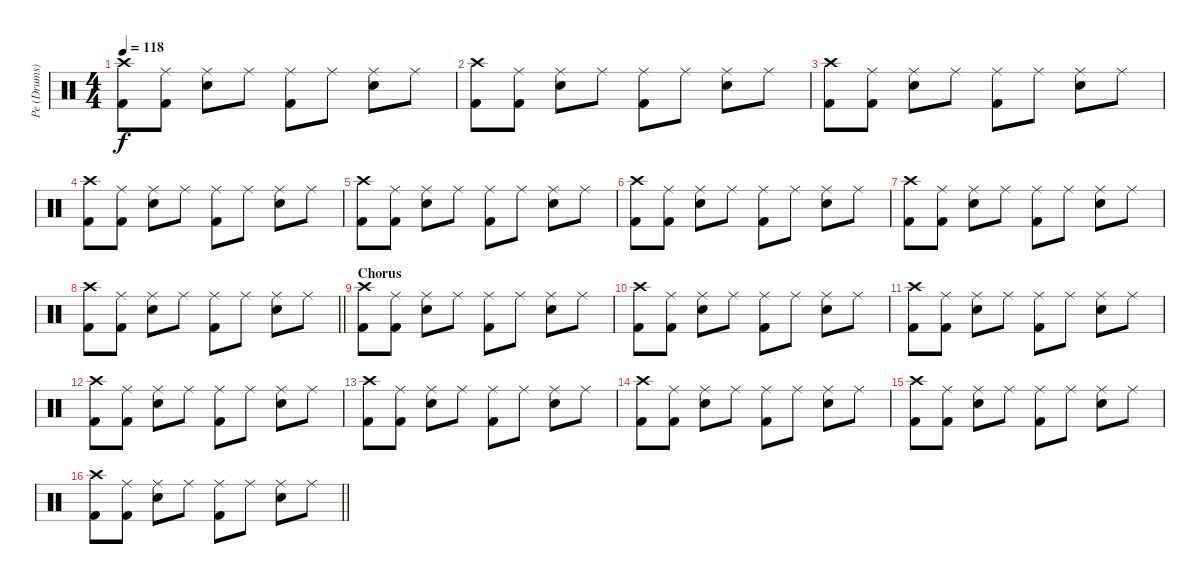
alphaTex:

\track ("Pe (Drums)" "Pe (Drums)") {instrument percussion}
\staff {score}
\articulation defaults
\ts (4 4)
\tempo 118
\clef neutral
\ks c
("Crash high (hit)" "Kick (hit) 2").8{dy f} ("Ride (middle)" "Kick (hit) 2").8 ("Ride (middle)" "Snare (hit) 2").8 "Ride (middle)".8 ("Ride (middle)" "Kick (hit) 2").8 "Ride (middle)".8 ("Ride (middle)" "Snare (hit) 2").8 "Ride (middle)".8 |
("Crash high (hit)" "Kick (hit) 2").8 ("Ride (middle)" "Kick (hit) 2").8 ("Ride (middle)" "Snare (hit) 2").8 "Ride (middle)".8 ("Ride (middle)" "Kick (hit) 2").8 "Ride (middle)".8 ("Ride (middle)" "Snare (hit) 2").8 "Ride (middle)".8 |
("Crash high (hit)" "Kick (hit) 2").8 ("Ride (middle)" "Kick (hit) 2").8 ("Ride (middle)" "Snare (hit) 2").8 "Ride (middle)".8 ("Ride (middle)" "Kick (hit) 2").8 "Ride (middle)".8 ("Ride (middle)" "Snare (hit) 2").8 "Ride (middle)".8 |
("Crash high (hit)" "Kick (hit) 2").8 ("Ride (middle)" "Kick (hit) 2").8 ("Ride (middle)" "Snare (hit) 2").8 "Ride (middle)".8 ("Ride (middle)" "Kick (hit) 2").8 "Ride (middle)".8 ("Ride (middle)" "Snare (hit) 2").8 "Ride (middle)".8 |
("Crash high (hit)" "Kick (hit) 2").8 ("Ride (middle)" "Kick (hit) 2").8 ("Ride (middle)" "Snare (hit) 2").8 "Ride (middle)".8 ("Ride (middle)" "Kick (hit) 2").8 "Ride (middle)".8 ("Ride (middle)" "Snare (hit) 2").8 "Ride (middle)".8 |
("Crash high (hit)" "Kick (hit) 2").8 ("Ride (middle)" "Kick (hit) 2").8 ("Ride (middle)" "Snare (hit) 2").8 "Ride (middle)".8 ("Ride (middle)" "Kick (hit) 2").8 "Ride (middle)".8 ("Ride (middle)" "Snare (hit) 2").8 "Ride (middle)".8 |
("Crash high (hit)" "Kick (hit) 2").8 ("Ride (middle)" "Kick (hit) 2").8 ("Ride (middle)" "Snare (hit) 2").8 "Ride (middle)".8 ("Ride (middle)" "Kick (hit) 2").8 "Ride (middle)".8 ("Ride (middle)" "Snare (hit) 2").8 "Ride (middle)".8 |
\barLineRight lightlight
("Crash high (hit)" "Kick (hit) 2").8 ("Ride (middle)" "Kick (hit) 2").8 ("Ride (middle)" "Snare (hit) 2").8 "Ride (middle)".8 ("Ride (middle)" "Kick (hit) 2").8 "Ride (middle)".8 ("Ride (middle)" "Snare (hit) 2").8 "Ride (middle)".8 |
\section ("" "Chorus")
("Crash high (hit)" "Kick (hit) 2").8 ("Ride (middle)" "Kick (hit) 2").8 ("Ride (middle)" "Snare (hit) 2").8 "Ride (middle)".8 ("Ride (middle)" "Kick (hit) 2").8 "Ride (middle)".8 ("Ride (middle)" "Snare (hit) 2").8 "Ride (middle)".8 |
("Crash high (hit)" "Kick (hit) 2").8 ("Ride (middle)" "Kick (hit) 2").8 ("Ride (middle)" "Snare (hit) 2").8 "Ride (middle)".8 ("Ride (middle)" "Kick (hit) 2").8 "Ride (middle)".8 ("Ride (middle)" "Snare (hit) 2").8 "Ride (middle)".8 |
("Crash high (hit)" "Kick (hit) 2").8 ("Ride (middle)" "Kick (hit) 2").8 ("Ride (middle)" "Snare (hit) 2").8 "Ride (middle)".8 ("Ride (middle)" "Kick (hit) 2").8 "Ride (middle)".8 ("Ride (middle)" "Snare (hit) 2").8 "Ride (middle)".8 |
("Crash high (hit)" "Kick (hit) 2").8 ("Ride (middle)" "Kick (hit) 2").8 ("Ride (middle)" "Snare (hit) 2").8 "Ride (middle)".8 ("Ride (middle)" "Kick (hit) 2").8 "Ride (middle)".8 ("Ride (middle)" "Snare (hit) 2").8 "Ride (middle)".8 |
("Crash high (hit)" "Kick (hit) 2").8 ("Ride (middle)" "Kick (hit) 2").8 ("Ride (middle)" "Snare (hit) 2").8 "Ride (middle)".8 ("Ride (middle)" "Kick (hit) 2").8 "Ride (middle)".8 ("Ride (middle)" "Snare (hit) 2").8 "Ride (middle)".8 |
("Crash high (hit)" "Kick (hit) 2").8 ("Ride (middle)" "Kick (hit) 2").8 ("Ride (middle)" "Snare (hit) 2").8 "Ride (middle)".8 ("Ride (middle)" "Kick (hit) 2").8 "Ride (middle)".8 ("Ride (middle)" "Snare (hit) 2").8 "Ride (middle)".8 |
("Crash high (hit)" "Kick (hit) 2").8 ("Ride (middle)" "Kick (hit) 2").8 ("Ride (middle)" "Snare (hit) 2").8 "Ride (middle)".8 ("Ride (middle)" "Kick (hit) 2").8 "Ride (middle)".8 ("Ride (middle)" "Snare (hit) 2").8 "Ride (middle)".8 |
\barLineRight lightlight
("Crash high (hit)" "Kick (hit) 2").8 ("Ride (middle)" "Kick (hit) 2").8 ("Ride (middle)" "Snare (hit) 2").8 "Ride (middle)".8 ("Ride (middle)" "Kick (hit) 2").8 "Ride (middle)".8 ("Ride (middle)" "Snare (hit) 2").8 "Ride (middle)".8
